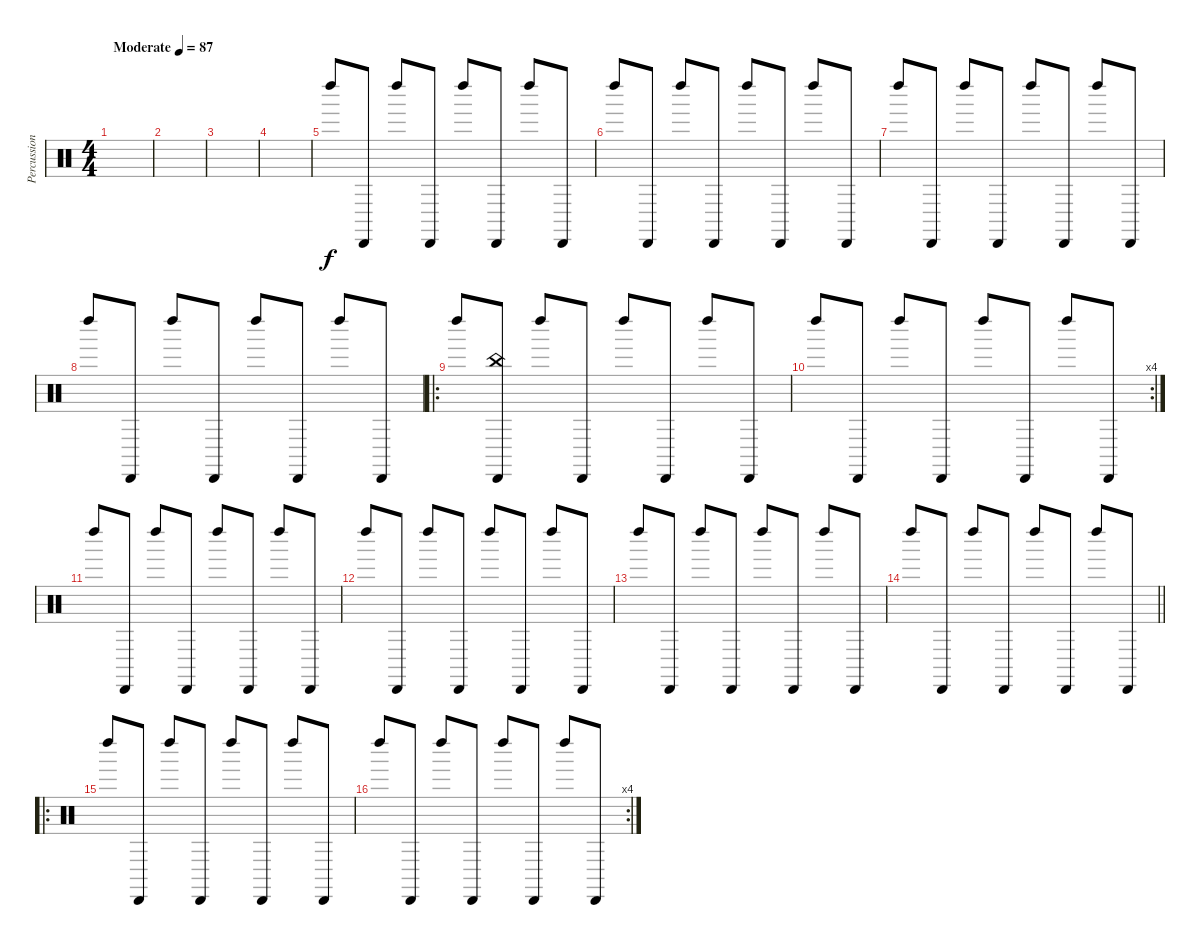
\track ("Percussioni" "Percussion") {instrument percussion}
\staff {score}
\articulation defaults
\ts (4 4)
\tempo (87 "Moderate")
\clef neutral
\ks c
|
|
|
|
"Left Maraca (hit)".8 "Cabasa (hit)".8 "Left Maraca (hit)".8 "Cabasa (hit)".8 "Left Maraca (hit)".8 "Cabasa (hit)".8 "Left Maraca (hit)".8 "Cabasa (hit)".8 |
"Left Maraca (hit)".8 "Cabasa (hit)".8 "Left Maraca (hit)".8 "Cabasa (hit)".8 "Left Maraca (hit)".8 "Cabasa (hit)".8 "Left Maraca (hit)".8 "Cabasa (hit)".8 |
"Left Maraca (hit)".8 "Cabasa (hit)".8 "Left Maraca (hit)".8 "Cabasa (hit)".8 "Left Maraca (hit)".8 "Cabasa (hit)".8 "Left Maraca (hit)".8 "Cabasa (hit)".8 |
"Left Maraca (hit)".8 "Cabasa (hit)".8 "Left Maraca (hit)".8 "Cabasa (hit)".8 "Left Maraca (hit)".8 "Cabasa (hit)".8 "Left Maraca (hit)".8 "Cabasa (hit)".8 |
\ro "Left Maraca (hit)".8
("China (hit)" "Cabasa (hit)").8 "Left Maraca (hit)".8 "Cabasa (hit)".8 "Left Maraca (hit)".8 "Cabasa (hit)".8 "Left Maraca (hit)".8 "Cabasa (hit)".8 |
\rc 4 "Left Maraca (hit)".8 "Cabasa (hit)".8 "Left Maraca (hit)".8 "Cabasa (hit)".8 "Left Maraca (hit)".8 "Cabasa (hit)".8 "Left Maraca (hit)".8 "Cabasa (hit)".8
|
"Left Maraca (hit)".8 "Cabasa (hit)".8 "Left Maraca (hit)".8 "Cabasa (hit)".8 "Left Maraca (hit)".8 "Cabasa (hit)".8 "Left Maraca (hit)".8 "Cabasa (hit)".8 |
"Left Maraca (hit)".8 "Cabasa (hit)".8 "Left Maraca (hit)".8 "Cabasa (hit)".8 "Left Maraca (hit)".8 "Cabasa (hit)".8 "Left Maraca (hit)".8 "Cabasa (hit)".8 |
"Left Maraca (hit)".8 "Cabasa (hit)".8 "Left Maraca (hit)".8 "Cabasa (hit)".8 "Left Maraca (hit)".8 "Cabasa (hit)".8 "Left Maraca (hit)".8 "Cabasa (hit)".8 |
\barLineRight lightlight "Left Maraca (hit)".8 "Cabasa (hit)".8 "Left Maraca (hit)".8 "Cabasa (hit)".8 "Left Maraca (hit)".8 "Cabasa (hit)".8 "Left Maraca (hit)".8 "Cabasa (hit)".8
|
\ro "Left Maraca (hit)".8 "Cabasa (hit)".8 "Left Maraca (hit)".8 "Cabasa (hit)".8 "Left Maraca (hit)".8 "Cabasa (hit)".8 "Left Maraca (hit)".8 "Cabasa (hit)".8
|
\rc 4 "Left Maraca (hit)".8 "Cabasa (hit)".8 "Left Maraca (hit)".8 "Cabasa (hit)".8 "Left Maraca (hit)".8 "Cabasa (hit)".8 "Left Maraca (hit)".8 "Cabasa (hit)".8
